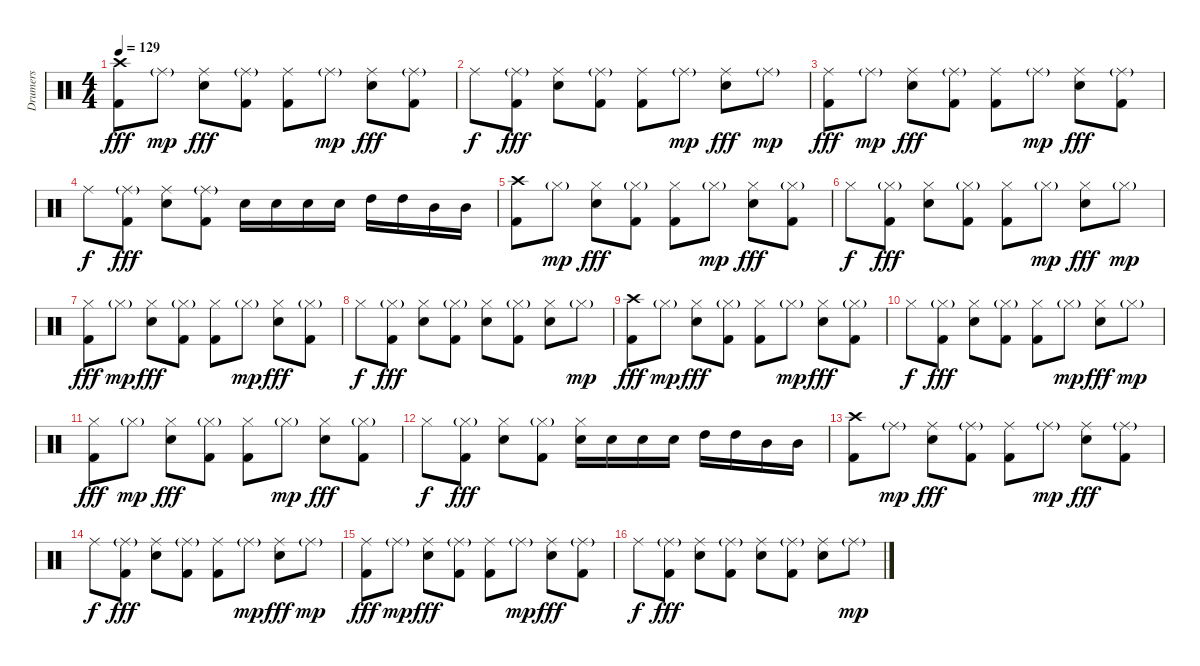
\track ("Drumers" "Drumers") {instrument percussion}
\staff {score}
\articulation defaults
\ts (4 4)
\tempo 129
\clef neutral
\ks c
("Crash high (hit)" "Kick (hit) 2").8{dy fff} "Ride (middle)"{g}.8{dy mp} ("Ride (middle)" "Electric Snare (hit)").8{dy fff} ("Ride (middle)"{g} "Kick (hit) 2").8 ("Ride (middle)" "Kick (hit) 2").8 "Ride (middle)"{g}.8{dy mp} ("Ride (middle)" "Electric Snare (hit)").8{dy fff} ("Ride (middle)"{g} "Kick (hit) 2").8 |
"Ride (middle)".8{dy f} ("Ride (middle)"{g} "Kick (hit) 2").8{dy fff} ("Ride (middle)" "Electric Snare (hit)").8 ("Ride (middle)"{g} "Kick (hit) 2").8 ("Ride (middle)" "Kick (hit) 2").8 "Ride (middle)"{g}.8{dy mp} ("Ride (middle)" "Electric Snare (hit)").8{dy fff} "Ride (middle)"{g}.8{dy mp} |
("Ride (middle)" "Kick (hit) 2").8{dy fff} "Ride (middle)"{g}.8{dy mp} ("Ride (middle)" "Electric Snare (hit)").8{dy fff} ("Ride (middle)"{g} "Kick (hit) 2").8 ("Ride (middle)" "Kick (hit) 2").8 "Ride (middle)"{g}.8{dy mp} ("Ride (middle)" "Electric Snare (hit)").8{dy fff} ("Ride (middle)"{g} "Kick (hit) 2").8 |
"Ride (middle)".8{dy f} ("Ride (middle)"{g} "Kick (hit) 2").8{dy fff} ("Ride (middle)" "Electric Snare (hit)").8 ("Ride (middle)"{g} "Kick (hit) 2").8 "Electric Snare (hit)".16 "Electric Snare (hit)".16 "Electric Snare (hit)".16 "Electric Snare (hit)".16 "High Tom (hit)".16 "High Tom (hit)".16 "Mid Tom (hit)".16 "Mid Tom (hit)".16 |
("Crash high (hit)" "Kick (hit) 2").8 "Hi-Hat (closed)"{g}.8{dy mp} ("Hi-Hat (closed)" "Electric Snare (hit)").8{dy fff} ("Hi-Hat (closed)"{g} "Kick (hit) 2").8 ("Hi-Hat (closed)" "Kick (hit) 2").8 "Hi-Hat (closed)"{g}.8{dy mp} ("Hi-Hat (closed)" "Electric Snare (hit)").8{dy fff} ("Hi-Hat (closed)"{g} "Kick (hit) 2").8 |
"Hi-Hat (closed)".8{dy f} ("Hi-Hat (closed)"{g} "Kick (hit) 2").8{dy fff} ("Hi-Hat (closed)" "Electric Snare (hit)").8 ("Hi-Hat (closed)"{g} "Kick (hit) 2").8 ("Hi-Hat (closed)" "Kick (hit) 2").8 "Hi-Hat (closed)"{g}.8{dy mp} ("Hi-Hat (closed)" "Electric Snare (hit)").8{dy fff} "Hi-Hat (closed)"{g}.8{dy mp} |
("Hi-Hat (closed)" "Kick (hit) 2").8{dy fff} "Hi-Hat (closed)"{g}.8{dy mp} ("Hi-Hat (closed)" "Electric Snare (hit)").8{dy fff} ("Hi-Hat (closed)"{g} "Kick (hit) 2").8 ("Hi-Hat (closed)" "Kick (hit) 2").8 "Hi-Hat (closed)"{g}.8{dy mp} ("Hi-Hat (closed)" "Electric Snare (hit)").8{dy fff} ("Hi-Hat (closed)"{g} "Kick (hit) 2").8 |
"Hi-Hat (closed)".8{dy f} ("Hi-Hat (closed)"{g} "Kick (hit) 2").8{dy fff} ("Hi-Hat (closed)" "Electric Snare (hit)").8 ("Hi-Hat (closed)"{g} "Kick (hit) 2").8 ("Hi-Hat (closed)" "Electric Snare (hit)").8 ("Hi-Hat (closed)"{g} "Kick (hit) 2").8 ("Hi-Hat (closed)" "Electric Snare (hit)").8 "Hi-Hat (closed)"{g}.8{dy mp} |
("Crash high (hit)" "Kick (hit) 2").8{dy fff} "Hi-Hat (closed)"{g}.8{dy mp} ("Hi-Hat (closed)" "Electric Snare (hit)").8{dy fff} ("Hi-Hat (closed)"{g} "Kick (hit) 2").8 ("Hi-Hat (closed)" "Kick (hit) 2").8 "Hi-Hat (closed)"{g}.8{dy mp} ("Hi-Hat (closed)" "Electric Snare (hit)").8{dy fff} ("Hi-Hat (closed)"{g} "Kick (hit) 2").8 |
"Hi-Hat (closed)".8{dy f} ("Hi-Hat (closed)"{g} "Kick (hit) 2").8{dy fff} ("Hi-Hat (closed)" "Electric Snare (hit)").8 ("Hi-Hat (closed)"{g} "Kick (hit) 2").8 ("Hi-Hat (closed)" "Kick (hit) 2").8 "Hi-Hat (closed)"{g}.8{dy mp} ("Hi-Hat (closed)" "Electric Snare (hit)").8{dy fff} "Hi-Hat (closed)"{g}.8{dy mp} |
("Hi-Hat (closed)" "Kick (hit) 2").8{dy fff} "Hi-Hat (closed)"{g}.8{dy mp} ("Hi-Hat (closed)" "Electric Snare (hit)").8{dy fff} ("Hi-Hat (closed)"{g} "Kick (hit) 2").8 ("Hi-Hat (closed)" "Kick (hit) 2").8 "Hi-Hat (closed)"{g}.8{dy mp} ("Hi-Hat (closed)" "Electric Snare (hit)").8{dy fff} ("Hi-Hat (closed)"{g} "Kick (hit) 2").8 |
"Hi-Hat (closed)".8{dy f} ("Hi-Hat (closed)"{g} "Kick (hit) 2").8{dy fff} ("Hi-Hat (closed)" "Electric Snare (hit)").8 ("Hi-Hat (closed)"{g} "Kick (hit) 2").8 ("Hi-Hat (closed)" "Electric Snare (hit)").16 "Electric Snare (hit)".16 "Electric Snare (hit)".16 "Electric Snare (hit)".16 "High Tom (hit)".16 "High Tom (hit)".16 "Mid Tom (hit)".16 "Mid Tom (hit)".16 |
("Crash high (hit)" "Kick (hit) 2").8 "Ride (middle)"{g}.8{dy mp} ("Ride (middle)" "Electric Snare (hit)").8{dy fff} ("Ride (middle)"{g} "Kick (hit) 2").8 ("Ride (middle)" "Kick (hit) 2").8 "Ride (middle)"{g}.8{dy mp} ("Ride (middle)" "Electric Snare (hit)").8{dy fff} ("Ride (middle)"{g} "Kick (hit) 2").8 |
"Ride (middle)".8{dy f} ("Ride (middle)"{g} "Kick (hit) 2").8{dy fff} ("Ride (middle)" "Electric Snare (hit)").8 ("Ride (middle)"{g} "Kick (hit) 2").8 ("Ride (middle)" "Kick (hit) 2").8 "Ride (middle)"{g}.8{dy mp} ("Ride (middle)" "Electric Snare (hit)").8{dy fff} "Ride (middle)"{g}.8{dy mp} |
("Ride (middle)" "Kick (hit) 2").8{dy fff} "Ride (middle)"{g}.8{dy mp} ("Ride (middle)" "Electric Snare (hit)").8{dy fff} ("Ride (middle)"{g} "Kick (hit) 2").8 ("Ride (middle)" "Kick (hit) 2").8 "Ride (middle)"{g}.8{dy mp} ("Ride (middle)" "Electric Snare (hit)").8{dy fff} ("Ride (middle)"{g} "Kick (hit) 2").8 |
"Ride (middle)".8{dy f} ("Ride (middle)"{g} "Kick (hit) 2").8{dy fff} ("Ride (middle)" "Electric Snare (hit)").8 ("Ride (middle)"{g} "Kick (hit) 2").8 ("Ride (middle)" "Electric Snare (hit)").8 ("Ride (middle)"{g} "Kick (hit) 2").8 ("Ride (middle)" "Electric Snare (hit)").8 "Ride (middle)"{g}.8{dy mp}
